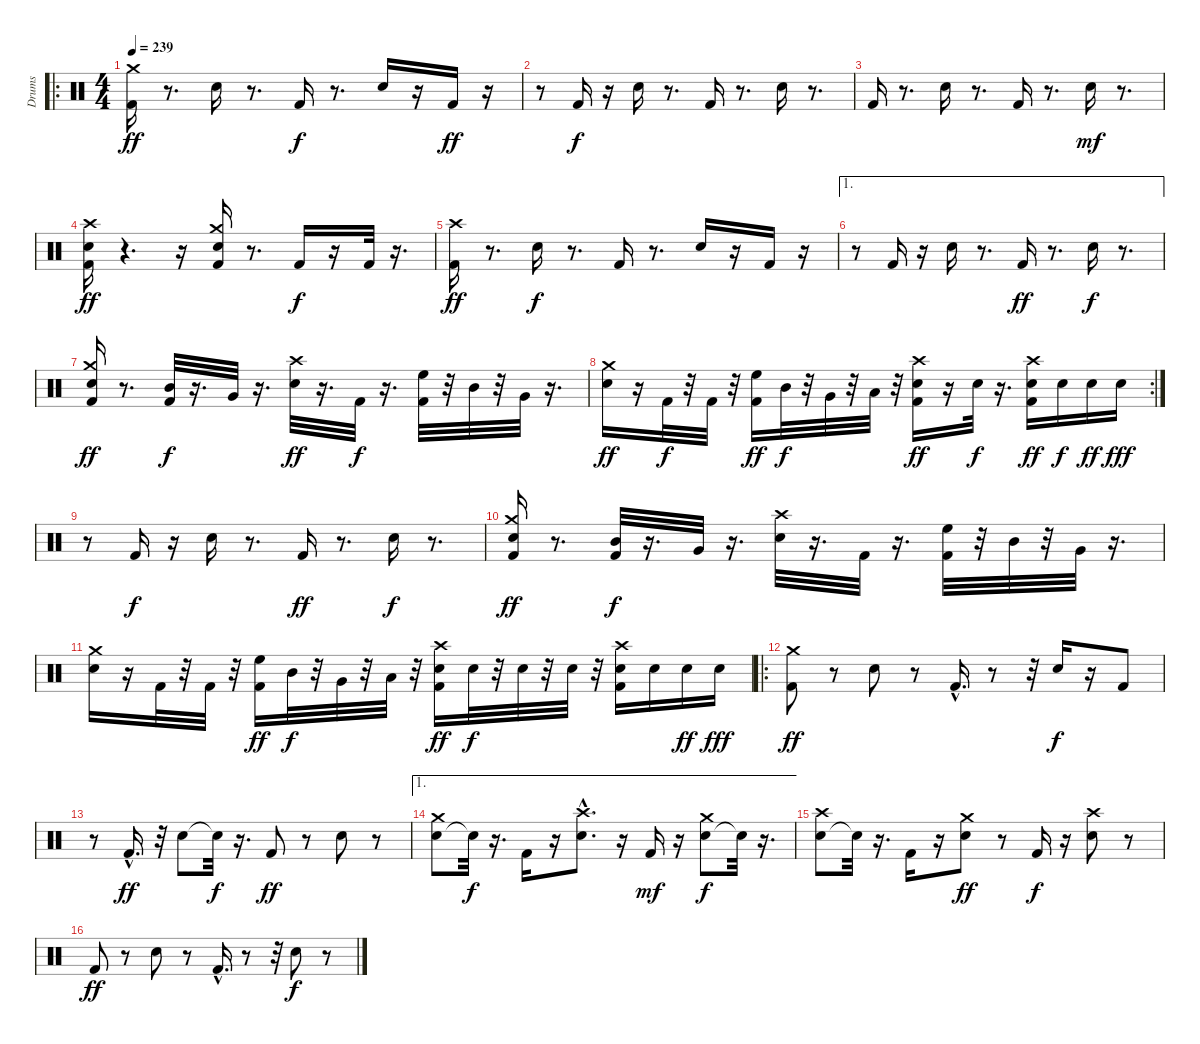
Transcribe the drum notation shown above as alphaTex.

\track ("Drums" "Drums") {instrument percussion}
\staff {score}
\articulation defaults
\ro
\ts (4 4)
\tempo 239
\clef neutral
\ks c
("Kick (hit) 2" "Crash medium (hit)").16{dy ff} r.8{d} "Snare (hit) 2".16 r.8{d} "Kick (hit) 2".16{dy f} r.8{d} "Snare (hit) 2".16 r.16 "Kick (hit) 2".16{dy ff} r.16 |
r.8 "Kick (hit) 2".16{dy f} r.16 "Snare (hit) 2".16 r.8{d} "Kick (hit) 2".16 r.8{d} "Snare (hit) 2".16 r.8{d} |
"Kick (hit) 2".16 r.8{d} "Snare (hit) 2".16 r.8{d} "Kick (hit) 2".16 r.8{d} "Snare (hit) 2".16{dy mf} r.8{d} |
("Snare (hit) 2" "Kick (hit) 2" "Crash high (hit)").16{dy ff} r.4{d} r.16 ("Kick (hit) 2" "Crash medium (hit)" "Snare (hit) 2").16 r.8{d} "Kick (hit) 2".16{dy f} r.16 "Kick (hit) 2".32 r.16{d} |
("Kick (hit) 2" "Crash high (hit)").16{dy ff} r.8{d} "Snare (hit) 2".16{dy f} r.8{d} "Kick (hit) 2".16 r.8{d} "Snare (hit) 2".16 r.16 "Kick (hit) 2".16 r.16 |
\ae 1
r.8 "Kick (hit) 2".16 r.16 "Snare (hit) 2".16 r.8{d} "Kick (hit) 2".16{dy ff} r.8{d} "Snare (hit) 2".16{dy f} r.8{d} |
("Snare (hit) 2" "Crash medium (hit)" "Kick (hit) 2").16{dy ff} r.8{d} ("Kick (hit) 2" "Mid Tom (hit)").32{dy f} r.16{d} "Very Low Tom (hit)".32 r.16{d} ("Snare (hit) 2" "Crash high (hit)").32{dy ff} r.16{d} "Kick (hit) 2".32{dy f} r.16{d} ("Kick (hit) 2" "High Floor Tom (hit)").32 r.32 "Mid Tom (hit)".32 r.32 "Very Low Tom (hit)".32 r.16{d} |
\rc 2
("Snare (hit) 2" "Crash medium (hit)").16{dy ff} r.16 "Kick (hit) 2".32{dy f} r.32 "Kick (hit) 2".32 r.32 ("Kick (hit) 2" "High Floor Tom (hit)").16{dy ff} "Mid Tom (hit)".32{dy f} r.32 "Very Low Tom (hit)".32 r.32 "Low Floor Tom (hit)".32 r.32 ("Crash high (hit)" "Snare (hit) 2" "Kick (hit) 2").16{dy ff} r.16 "Snare (hit) 2".32{dy f} r.16{d} ("Snare (hit) 2" "Kick (hit) 2" "Crash high (hit)").16{dy ff} "Snare (hit) 2".16{dy f} "Snare (hit) 2".16{dy ff} "Snare (hit) 2".16{dy fff} |
r.8 "Kick (hit) 2".16{dy f} r.16 "Snare (hit) 2".16 r.8{d} "Kick (hit) 2".16{dy ff} r.8{d} "Snare (hit) 2".16{dy f} r.8{d} |
("Kick (hit) 2" "Snare (hit) 2" "Crash medium (hit)").16{dy ff} r.8{d} ("Kick (hit) 2" "Mid Tom (hit)").32{dy f} r.16{d} "Very Low Tom (hit)".32 r.16{d} ("Crash high (hit)" "Snare (hit) 2").32 r.16{d} "Kick (hit) 2".32 r.16{d} ("Kick (hit) 2" "High Floor Tom (hit)").32 r.32 "Mid Tom (hit)".32 r.32 "Very Low Tom (hit)".32 r.16{d} |
("Crash medium (hit)" "Snare (hit) 2").16 r.16 "Kick (hit) 2".32 r.32 "Kick (hit) 2".32 r.32 ("Kick (hit) 2" "High Floor Tom (hit)").16{dy ff} "Mid Tom (hit)".32{dy f} r.32 "Very Low Tom (hit)".32 r.32 "Low Floor Tom (hit)".32 r.32 ("Crash high (hit)" "Snare (hit) 2" "Kick (hit) 2").16{dy ff} "Snare (hit) 2".32{dy f} r.32 "Snare (hit) 2".32 r.32 "Snare (hit) 2".32 r.32 ("Snare (hit) 2" "Kick (hit) 2" "Crash high (hit)").16 "Snare (hit) 2".16 "Snare (hit) 2".16{dy ff} "Snare (hit) 2".16{dy fff} |
\ro
("Kick (hit) 2" "Crash medium (hit)").8{dy ff} r.8 "Snare (hit) 2".8 r.8 "Kick (hit) 2"{hac}.16{d} r.8 r.32 "Snare (hit) 2".16{dy f} r.16 "Kick (hit) 2".8 |
r.8 "Kick (hit) 2"{hac}.16{d dy ff} r.32 "Snare (hit) 2".8 "Snare (hit)"{t}.32{dy f} r.16{d} "Kick (hit) 2".8{dy ff} r.8 "Snare (hit) 2".8 r.8 |
\ae 1
("Snare (hit) 2" "Crash medium (hit)").8 "Snare (hit)"{t}.32{dy f} r.16{d} "Kick (hit) 2".16 r.16 ("Snare (hit) 2"{hac} "Crash high (hit)").8{d} r.16 "Kick (hit) 2".16{dy mf} r.16 ("Snare (hit) 2" "Crash medium (hit)").8{dy f} "Snare (hit)"{t}.32 r.16{d} |
("Snare (hit) 2" "Crash high (hit)").8 "Snare (hit)"{t}.32 r.16{d} "Kick (hit) 2".16 r.16 ("Snare (hit) 2" "Crash medium (hit)").8{dy ff} r.8 "Kick (hit) 2".16{dy f} r.16 ("Crash high (hit)" "Snare (hit) 2").8 r.8 |
"Kick (hit) 2".8{dy ff} r.8 "Snare (hit) 2".8 r.8 "Kick (hit) 2"{hac}.16{d} r.8 r.32 "Snare (hit) 2".8{dy f} r.8
